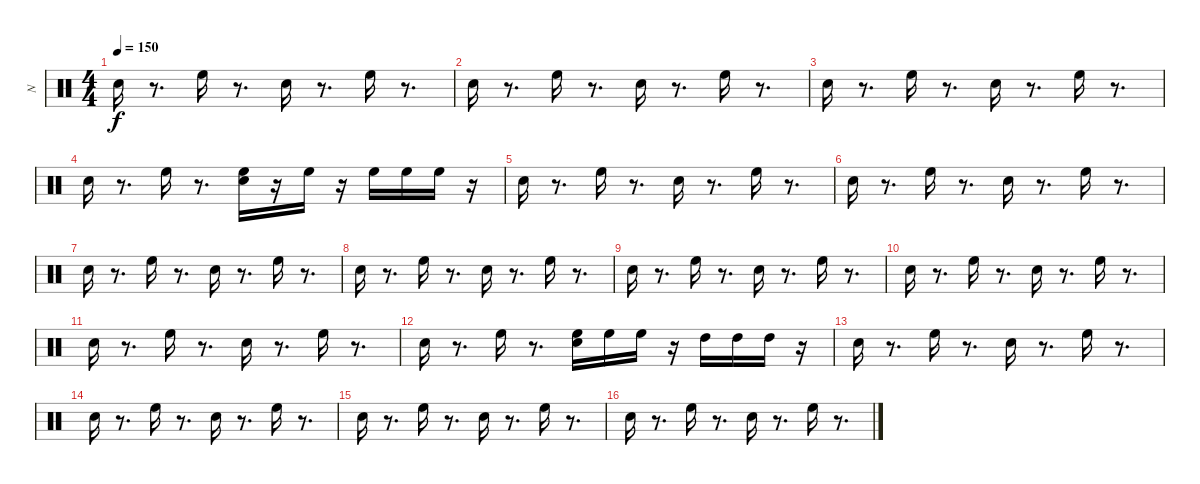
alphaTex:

\track ("N" "N") {instrument percussion}
\staff {score}
\articulation defaults
\ts (4 4)
\tempo 150
\clef neutral
\ks c "Electric Snare (hit)".16{dy f}
r.8{d} "High Floor Tom (hit)".16 r.8{d} "Electric Snare (hit)".16 r.8{d} "High Floor Tom (hit)".16 r.8{d} |
"Electric Snare (hit)".16 r.8{d} "High Floor Tom (hit)".16 r.8{d} "Electric Snare (hit)".16 r.8{d} "High Floor Tom (hit)".16 r.8{d} |
"Electric Snare (hit)".16 r.8{d} "High Floor Tom (hit)".16 r.8{d} "Electric Snare (hit)".16 r.8{d} "High Floor Tom (hit)".16 r.8{d} |
"Electric Snare (hit)".16 r.8{d} "High Floor Tom (hit)".16 r.8{d} ("High Floor Tom (hit)" "Electric Snare (hit)").16 r.16 "High Floor Tom (hit)".16 r.16 "High Floor Tom (hit)".16 "High Floor Tom (hit)".16 "High Floor Tom (hit)".16 r.16 |
"Electric Snare (hit)".16 r.8{d} "High Floor Tom (hit)".16 r.8{d} "Electric Snare (hit)".16 r.8{d} "High Floor Tom (hit)".16 r.8{d} |
"Electric Snare (hit)".16 r.8{d} "High Floor Tom (hit)".16 r.8{d} "Electric Snare (hit)".16 r.8{d} "High Floor Tom (hit)".16 r.8{d} |
"Electric Snare (hit)".16 r.8{d} "High Floor Tom (hit)".16 r.8{d} "Electric Snare (hit)".16 r.8{d} "High Floor Tom (hit)".16 r.8{d} |
"Electric Snare (hit)".16 r.8{d} "High Floor Tom (hit)".16 r.8{d} "Electric Snare (hit)".16 r.8{d} "High Floor Tom (hit)".16 r.8{d} |
"Electric Snare (hit)".16 r.8{d} "High Floor Tom (hit)".16 r.8{d} "Electric Snare (hit)".16 r.8{d} "High Floor Tom (hit)".16 r.8{d} |
"Electric Snare (hit)".16 r.8{d} "High Floor Tom (hit)".16 r.8{d} "Electric Snare (hit)".16 r.8{d} "High Floor Tom (hit)".16 r.8{d} |
"Electric Snare (hit)".16 r.8{d} "High Floor Tom (hit)".16 r.8{d} "Electric Snare (hit)".16 r.8{d} "High Floor Tom (hit)".16 r.8{d} |
"Electric Snare (hit)".16 r.8{d} "High Floor Tom (hit)".16 r.8{d} ("High Floor Tom (hit)" "Electric Snare (hit)").16 "High Floor Tom (hit)".16 "High Floor Tom (hit)".16 r.16 "High Tom (hit)".16 "High Tom (hit)".16 "High Tom (hit)".16 r.16 |
"Electric Snare (hit)".16 r.8{d} "High Floor Tom (hit)".16 r.8{d} "Electric Snare (hit)".16 r.8{d} "High Floor Tom (hit)".16 r.8{d} |
"Electric Snare (hit)".16 r.8{d} "High Floor Tom (hit)".16 r.8{d} "Electric Snare (hit)".16 r.8{d} "High Floor Tom (hit)".16 r.8{d} |
"Electric Snare (hit)".16 r.8{d} "High Floor Tom (hit)".16 r.8{d} "Electric Snare (hit)".16 r.8{d} "High Floor Tom (hit)".16 r.8{d} |
"Electric Snare (hit)".16 r.8{d} "High Floor Tom (hit)".16 r.8{d} "Electric Snare (hit)".16 r.8{d} "High Floor Tom (hit)".16 r.8{d}
